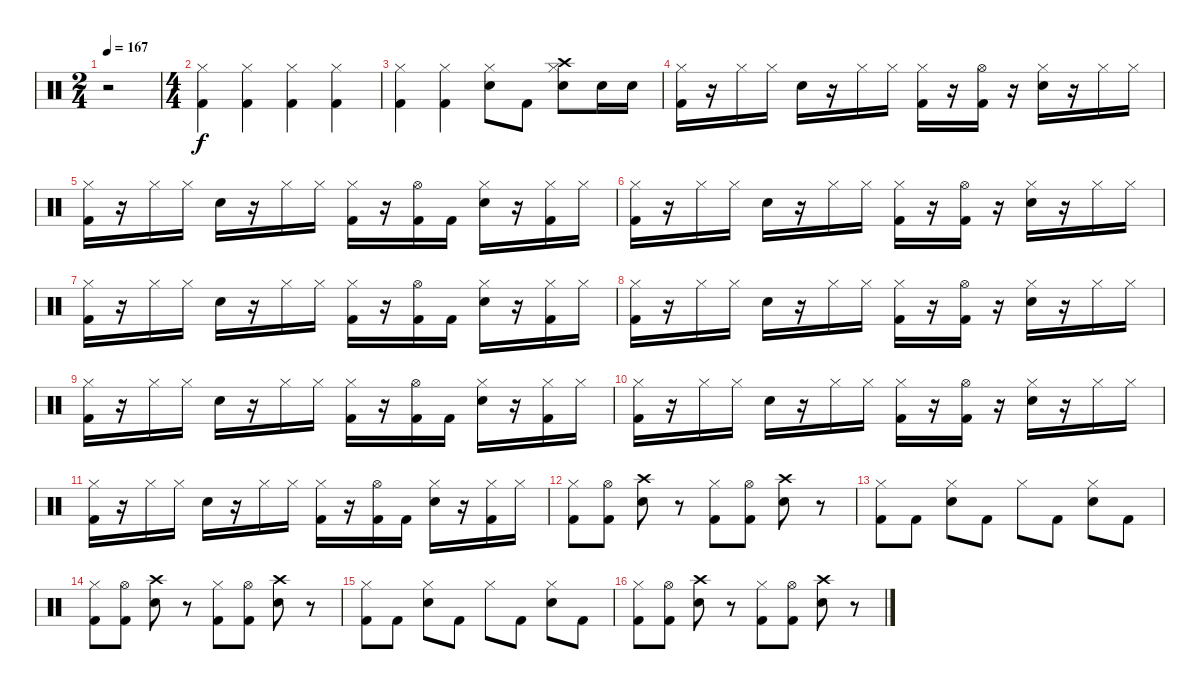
\track "" {instrument percussion}
\staff {score}
\articulation defaults
\ts (2 4)
\tempo 167
\clef neutral
\ks c
r.2{dy f} |
\ts (4 4)
("Hi-Hat (closed)" "Kick (hit) 2").4 ("Hi-Hat (closed)" "Kick (hit) 2").4 ("Hi-Hat (closed)" "Kick (hit) 2").4 ("Hi-Hat (closed)" "Kick (hit) 2").4 |
("Hi-Hat (closed)" "Kick (hit) 2").4 ("Hi-Hat (closed)" "Kick (hit) 2").4 ("Hi-Hat (closed)" "Electric Snare (hit)").8 "Kick (hit) 2".8 ("Hi-Hat (closed)" "Electric Snare (hit)" "Crash high (hit)").8 "Electric Snare (hit)".16 "Electric Snare (hit)".16 |
("Hi-Hat (closed)" "Kick (hit) 2").16 r.16 "Hi-Hat (closed)".16 "Hi-Hat (closed)".16 "Electric Snare (hit)".16 r.16 "Hi-Hat (closed)".16 "Hi-Hat (closed)".16 ("Hi-Hat (closed)" "Kick (hit) 2").16 r.16 ("Hi-Hat (open)" "Kick (hit) 2").16 r.16 ("Hi-Hat (closed)" "Electric Snare (hit)").16 r.16 "Hi-Hat (closed)".16 "Hi-Hat (closed)".16 |
("Hi-Hat (closed)" "Kick (hit) 2").16 r.16 "Hi-Hat (closed)".16 "Hi-Hat (closed)".16 "Electric Snare (hit)".16 r.16 "Hi-Hat (closed)".16 "Hi-Hat (closed)".16 ("Hi-Hat (closed)" "Kick (hit) 2").16 r.16 ("Hi-Hat (open)" "Kick (hit) 2").16 "Kick (hit) 2".16 ("Hi-Hat (closed)" "Electric Snare (hit)").16 r.16 ("Hi-Hat (closed)" "Kick (hit) 2").16 "Hi-Hat (closed)".16 |
("Hi-Hat (closed)" "Kick (hit) 2").16 r.16 "Hi-Hat (closed)".16 "Hi-Hat (closed)".16 "Electric Snare (hit)".16 r.16 "Hi-Hat (closed)".16 "Hi-Hat (closed)".16 ("Hi-Hat (closed)" "Kick (hit) 2").16 r.16 ("Hi-Hat (open)" "Kick (hit) 2").16 r.16 ("Hi-Hat (closed)" "Electric Snare (hit)").16 r.16 "Hi-Hat (closed)".16 "Hi-Hat (closed)".16 |
("Hi-Hat (closed)" "Kick (hit) 2").16 r.16 "Hi-Hat (closed)".16 "Hi-Hat (closed)".16 "Electric Snare (hit)".16 r.16 "Hi-Hat (closed)".16 "Hi-Hat (closed)".16 ("Hi-Hat (closed)" "Kick (hit) 2").16 r.16 ("Hi-Hat (open)" "Kick (hit) 2").16 "Kick (hit) 2".16 ("Hi-Hat (closed)" "Electric Snare (hit)").16 r.16 ("Hi-Hat (closed)" "Kick (hit) 2").16 "Hi-Hat (closed)".16 |
("Hi-Hat (closed)" "Kick (hit) 2").16 r.16 "Hi-Hat (closed)".16 "Hi-Hat (closed)".16 "Electric Snare (hit)".16 r.16 "Hi-Hat (closed)".16 "Hi-Hat (closed)".16 ("Hi-Hat (closed)" "Kick (hit) 2").16 r.16 ("Hi-Hat (open)" "Kick (hit) 2").16 r.16 ("Hi-Hat (closed)" "Electric Snare (hit)").16 r.16 "Hi-Hat (closed)".16 "Hi-Hat (closed)".16 |
("Hi-Hat (closed)" "Kick (hit) 2").16 r.16 "Hi-Hat (closed)".16 "Hi-Hat (closed)".16 "Electric Snare (hit)".16 r.16 "Hi-Hat (closed)".16 "Hi-Hat (closed)".16 ("Hi-Hat (closed)" "Kick (hit) 2").16 r.16 ("Hi-Hat (open)" "Kick (hit) 2").16 "Kick (hit) 2".16 ("Hi-Hat (closed)" "Electric Snare (hit)").16 r.16 ("Hi-Hat (closed)" "Kick (hit) 2").16 "Hi-Hat (closed)".16 |
("Hi-Hat (closed)" "Kick (hit) 2").16 r.16 "Hi-Hat (closed)".16 "Hi-Hat (closed)".16 "Electric Snare (hit)".16 r.16 "Hi-Hat (closed)".16 "Hi-Hat (closed)".16 ("Hi-Hat (closed)" "Kick (hit) 2").16 r.16 ("Hi-Hat (open)" "Kick (hit) 2").16 r.16 ("Hi-Hat (closed)" "Electric Snare (hit)").16 r.16 "Hi-Hat (closed)".16 "Hi-Hat (closed)".16 |
("Hi-Hat (closed)" "Kick (hit) 2").16 r.16 "Hi-Hat (closed)".16 "Hi-Hat (closed)".16 "Electric Snare (hit)".16 r.16 "Hi-Hat (closed)".16 "Hi-Hat (closed)".16 ("Hi-Hat (closed)" "Kick (hit) 2").16 r.16 ("Hi-Hat (open)" "Kick (hit) 2").16 "Kick (hit) 2".16 ("Hi-Hat (closed)" "Electric Snare (hit)").16 r.16 ("Hi-Hat (closed)" "Kick (hit) 2").16 "Hi-Hat (closed)".16 |
("Hi-Hat (closed)" "Kick (hit) 2").8 ("Hi-Hat (open)" "Kick (hit) 2").8 ("Electric Snare (hit)" "Crash high (hit)").8 r.8 ("Hi-Hat (closed)" "Kick (hit) 2").8 ("Hi-Hat (open)" "Kick (hit) 2").8 ("Electric Snare (hit)" "Crash high (hit)").8 r.8 |
("Hi-Hat (closed)" "Kick (hit) 2").8 "Kick (hit) 2".8 ("Hi-Hat (closed)" "Electric Snare (hit)").8 "Kick (hit) 2".8 "Hi-Hat (closed)".8 "Kick (hit) 2".8 ("Hi-Hat (closed)" "Electric Snare (hit)").8 "Kick (hit) 2".8 |
("Hi-Hat (closed)" "Kick (hit) 2").8 ("Hi-Hat (open)" "Kick (hit) 2").8 ("Electric Snare (hit)" "Crash high (hit)").8 r.8 ("Hi-Hat (closed)" "Kick (hit) 2").8 ("Hi-Hat (open)" "Kick (hit) 2").8 ("Electric Snare (hit)" "Crash high (hit)").8 r.8 |
("Hi-Hat (closed)" "Kick (hit) 2").8 "Kick (hit) 2".8 ("Hi-Hat (closed)" "Electric Snare (hit)").8 "Kick (hit) 2".8 "Hi-Hat (closed)".8 "Kick (hit) 2".8 ("Hi-Hat (closed)" "Electric Snare (hit)").8 "Kick (hit) 2".8 |
("Hi-Hat (closed)" "Kick (hit) 2").8 ("Hi-Hat (open)" "Kick (hit) 2").8 ("Electric Snare (hit)" "Crash high (hit)").8 r.8 ("Hi-Hat (closed)" "Kick (hit) 2").8 ("Hi-Hat (open)" "Kick (hit) 2").8 ("Electric Snare (hit)" "Crash high (hit)").8 r.8
